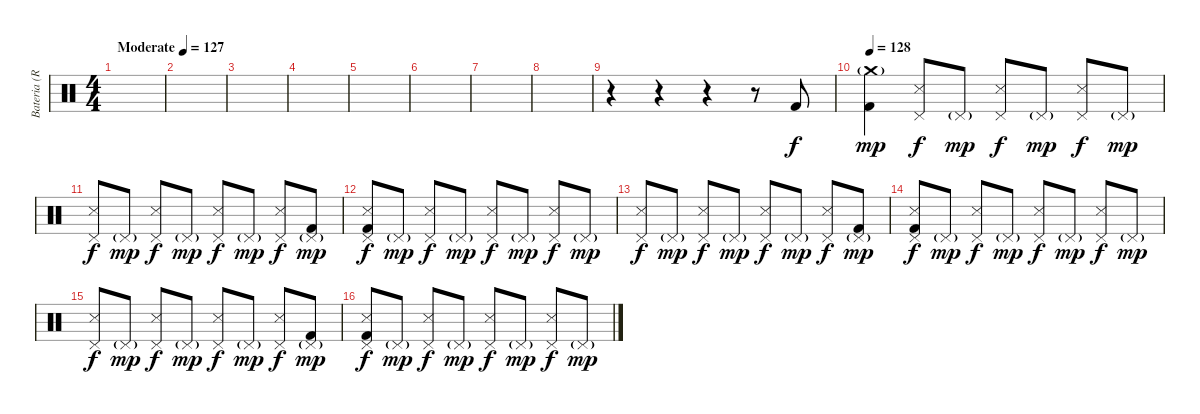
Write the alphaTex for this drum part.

\track ("Bateria (Roy)" "Bateria (R") {instrument percussion}
\staff {score}
\articulation defaults
\ts (4 4)
\tempo (127 "Moderate")
\clef neutral
\ks c
|
|
|
|
|
|
|
|
r.4 r.4 r.4 r.8 "Kick (hit) 2".8 |
\tempo 128
("Crash medium (hit)"{g} "Kick (hit) 2").4{dy mp} ("Pedal Hi-Hat (hit)" "Snare (side stick) 3").8{dy f} "Pedal Hi-Hat (hit)"{g}.8{dy mp} ("Pedal Hi-Hat (hit)" "Snare (side stick) 3").8{dy f} "Pedal Hi-Hat (hit)"{g}.8{dy mp} ("Pedal Hi-Hat (hit)" "Snare (side stick) 3").8{dy f} "Pedal Hi-Hat (hit)"{g}.8{dy mp} |
("Pedal Hi-Hat (hit)" "Snare (side stick) 3").8{dy f} "Pedal Hi-Hat (hit)"{g}.8{dy mp} ("Pedal Hi-Hat (hit)" "Snare (side stick) 3").8{dy f} "Pedal Hi-Hat (hit)"{g}.8{dy mp} ("Pedal Hi-Hat (hit)" "Snare (side stick) 3").8{dy f} "Pedal Hi-Hat (hit)"{g}.8{dy mp} ("Pedal Hi-Hat (hit)" "Snare (side stick) 3").8{dy f} ("Pedal Hi-Hat (hit)"{g} "Kick (hit) 2").8{dy mp} |
("Pedal Hi-Hat (hit)" "Snare (side stick) 3" "Kick (hit) 2").8{dy f} "Pedal Hi-Hat (hit)"{g}.8{dy mp} ("Pedal Hi-Hat (hit)" "Snare (side stick) 3").8{dy f} "Pedal Hi-Hat (hit)"{g}.8{dy mp} ("Pedal Hi-Hat (hit)" "Snare (side stick) 3").8{dy f} "Pedal Hi-Hat (hit)"{g}.8{dy mp} ("Pedal Hi-Hat (hit)" "Snare (side stick) 3").8{dy f} "Pedal Hi-Hat (hit)"{g}.8{dy mp} |
("Pedal Hi-Hat (hit)" "Snare (side stick) 3").8{dy f} "Pedal Hi-Hat (hit)"{g}.8{dy mp} ("Pedal Hi-Hat (hit)" "Snare (side stick) 3").8{dy f} "Pedal Hi-Hat (hit)"{g}.8{dy mp} ("Pedal Hi-Hat (hit)" "Snare (side stick) 3").8{dy f} "Pedal Hi-Hat (hit)"{g}.8{dy mp} ("Pedal Hi-Hat (hit)" "Snare (side stick) 3").8{dy f} ("Pedal Hi-Hat (hit)"{g} "Kick (hit) 2").8{dy mp} |
("Pedal Hi-Hat (hit)" "Snare (side stick) 3" "Kick (hit) 2").8{dy f} "Pedal Hi-Hat (hit)"{g}.8{dy mp} ("Pedal Hi-Hat (hit)" "Snare (side stick) 3").8{dy f} "Pedal Hi-Hat (hit)"{g}.8{dy mp} ("Pedal Hi-Hat (hit)" "Snare (side stick) 3").8{dy f} "Pedal Hi-Hat (hit)"{g}.8{dy mp} ("Pedal Hi-Hat (hit)" "Snare (side stick) 3").8{dy f} "Pedal Hi-Hat (hit)"{g}.8{dy mp} |
("Pedal Hi-Hat (hit)" "Snare (side stick) 3").8{dy f} "Pedal Hi-Hat (hit)"{g}.8{dy mp} ("Pedal Hi-Hat (hit)" "Snare (side stick) 3").8{dy f} "Pedal Hi-Hat (hit)"{g}.8{dy mp} ("Pedal Hi-Hat (hit)" "Snare (side stick) 3").8{dy f} "Pedal Hi-Hat (hit)"{g}.8{dy mp} ("Pedal Hi-Hat (hit)" "Snare (side stick) 3").8{dy f} ("Pedal Hi-Hat (hit)"{g} "Kick (hit) 2").8{dy mp} |
("Pedal Hi-Hat (hit)" "Snare (side stick) 3" "Kick (hit) 2").8{dy f} "Pedal Hi-Hat (hit)"{g}.8{dy mp} ("Pedal Hi-Hat (hit)" "Snare (side stick) 3").8{dy f} "Pedal Hi-Hat (hit)"{g}.8{dy mp} ("Pedal Hi-Hat (hit)" "Snare (side stick) 3").8{dy f} "Pedal Hi-Hat (hit)"{g}.8{dy mp} ("Pedal Hi-Hat (hit)" "Snare (side stick) 3").8{dy f} "Pedal Hi-Hat (hit)"{g}.8{dy mp}
